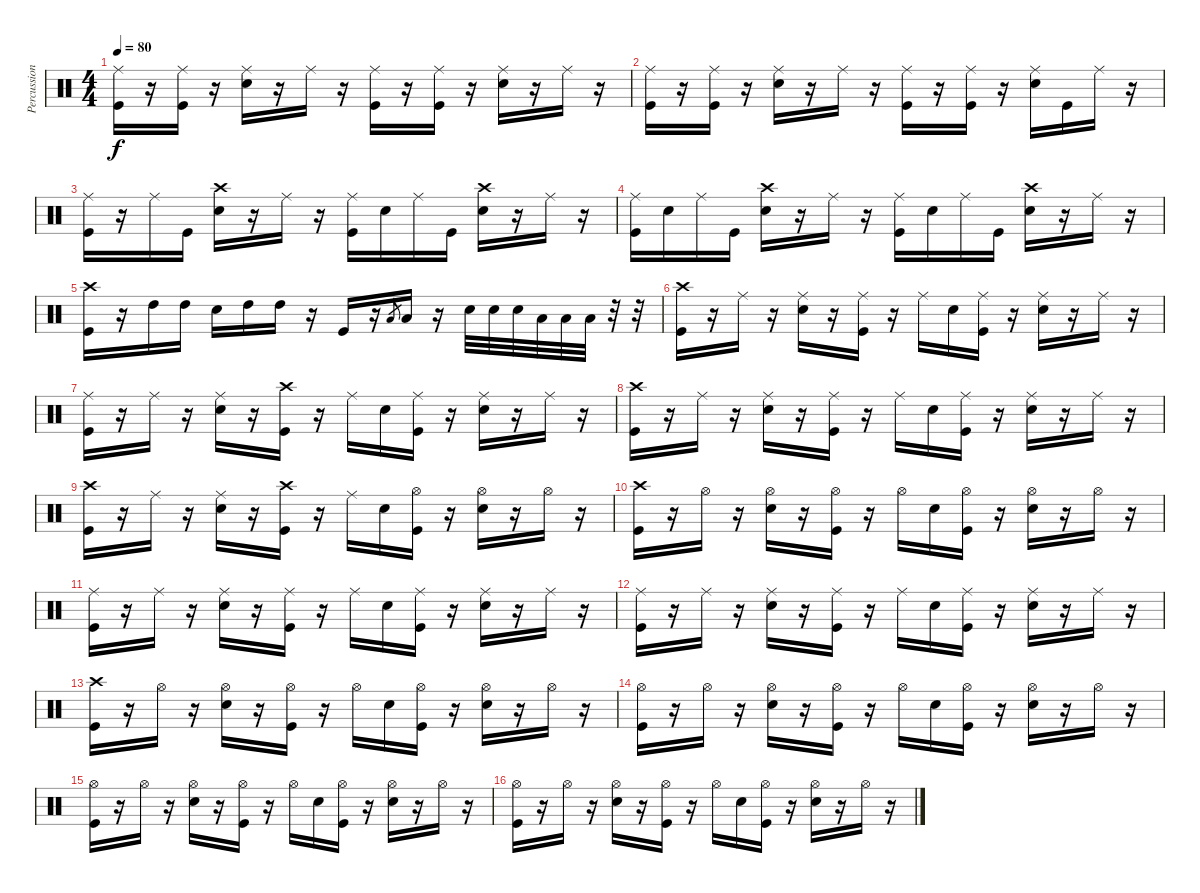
\track ("Percussion" "Percussion") {instrument percussion}
\staff {score}
\articulation defaults
\ts (4 4)
\tempo 80
\clef neutral
\ks c
("Ride (middle)" "Kick (hit)").16{dy f} r.16 ("Ride (middle)" "Kick (hit)").16 r.16 ("Snare (hit) 2" "Ride (middle)").16 r.16 "Ride (middle)".16 r.16 ("Ride (middle)" "Kick (hit)").16 r.16 ("Ride (middle)" "Kick (hit)").16 r.16 ("Snare (hit) 2" "Ride (middle)").16 r.16 "Ride (middle)".16 r.16 |
("Ride (middle)" "Kick (hit)").16 r.16 ("Ride (middle)" "Kick (hit)").16 r.16 ("Snare (hit) 2" "Ride (middle)").16 r.16 "Ride (middle)".16 r.16 ("Ride (middle)" "Kick (hit)").16 r.16 ("Ride (middle)" "Kick (hit)").16 r.16 ("Snare (hit) 2" "Ride (middle)").16 "Kick (hit)".16 "Ride (middle)".16 r.16 |
("Ride (middle)" "Kick (hit)").16 r.16 "Ride (middle)".16 "Kick (hit)".16 ("Snare (hit) 2" "Crash high (hit)").16 r.16 "Ride (middle)".16 r.16 ("Ride (middle)" "Kick (hit)").16 "Snare (hit) 2".16 "Ride (middle)".16 "Kick (hit)".16 ("Snare (hit) 2" "Crash high (hit)").16 r.16 "Ride (middle)".16 r.16 |
("Ride (middle)" "Kick (hit)").16 "Snare (hit) 2".16 "Ride (middle)".16 "Kick (hit)".16 ("Snare (hit) 2" "Crash high (hit)").16 r.16 "Ride (middle)".16 r.16 ("Ride (middle)" "Kick (hit)").16 "Snare (hit) 2".16 "Ride (middle)".16 "Kick (hit)".16 ("Snare (hit) 2" "Crash high (hit)").16 r.16 "Ride (middle)".16 r.16 |
("Crash high (hit)" "Kick (hit)").16 r.16 "High Tom (hit)".16 "High Tom (hit)".16 "Snare (hit) 2".16 "High Tom (hit)".16 "High Tom (hit)".16 r.16 "Kick (hit)".16 r.16 "Low Tom (hit)".8{gr} "Low Tom (hit)".16 r.16 "Snare (hit) 2".32 "Snare (hit) 2".32 "Snare (hit) 2".32 "Low Tom (hit)".32 "Low Tom (hit)".32 "Low Tom (hit)".32 r.32 r.32 |
("Crash high (hit)" "Kick (hit)").16 r.16 "Ride (middle)".16 r.16 ("Snare (hit) 2" "Ride (middle)").16 r.16 ("Ride (middle)" "Kick (hit)").16 r.16 "Ride (middle)".16 "Snare (hit) 2".16 ("Ride (middle)" "Kick (hit)").16 r.16 ("Snare (hit) 2" "Ride (middle)").16 r.16 "Ride (middle)".16 r.16 |
("Ride (middle)" "Kick (hit)").16 r.16 "Ride (middle)".16 r.16 ("Snare (hit) 2" "Ride (middle)").16 r.16 ("Crash high (hit)" "Kick (hit)").16 r.16 "Ride (middle)".16 "Snare (hit) 2".16 ("Ride (middle)" "Kick (hit)").16 r.16 ("Snare (hit) 2" "Ride (middle)").16 r.16 "Ride (middle)".16 r.16 |
("Crash high (hit)" "Kick (hit)").16 r.16 "Ride (middle)".16 r.16 ("Snare (hit) 2" "Ride (middle)").16 r.16 ("Ride (middle)" "Kick (hit)").16 r.16 "Ride (middle)".16 "Snare (hit) 2".16 ("Ride (middle)" "Kick (hit)").16 r.16 ("Snare (hit) 2" "Ride (middle)").16 r.16 "Ride (middle)".16 r.16 |
("Crash high (hit)" "Kick (hit)").16 r.16 "Ride (middle)".16 r.16 ("Snare (hit) 2" "Ride (middle)").16 r.16 ("Crash high (hit)" "Kick (hit)").16 r.16 "Ride (middle)".16 "Snare (hit) 2".16 ("Hi-Hat (open)" "Kick (hit)").16 r.16 ("Snare (hit) 2" "Hi-Hat (open)").16 r.16 "Hi-Hat (open)".16 r.16 |
("Crash high (hit)" "Kick (hit)").16 r.16 "Hi-Hat (open)".16 r.16 ("Snare (hit) 2" "Hi-Hat (open)").16 r.16 ("Hi-Hat (open)" "Kick (hit)").16 r.16 "Hi-Hat (open)".16 "Snare (hit) 2".16 ("Hi-Hat (open)" "Kick (hit)").16 r.16 ("Snare (hit) 2" "Hi-Hat (open)").16 r.16 "Hi-Hat (open)".16 r.16 |
("Ride (middle)" "Kick (hit)").16 r.16 "Ride (middle)".16 r.16 ("Snare (hit) 2" "Ride (middle)").16 r.16 ("Ride (middle)" "Kick (hit)").16 r.16 "Ride (middle)".16 "Snare (hit) 2".16 ("Ride (middle)" "Kick (hit)").16 r.16 ("Snare (hit) 2" "Ride (middle)").16 r.16 "Ride (middle)".16 r.16 |
("Ride (middle)" "Kick (hit)").16 r.16 "Ride (middle)".16 r.16 ("Snare (hit) 2" "Ride (middle)").16 r.16 ("Ride (middle)" "Kick (hit)").16 r.16 "Ride (middle)".16 "Snare (hit) 2".16 ("Ride (middle)" "Kick (hit)").16 r.16 ("Snare (hit) 2" "Ride (middle)").16 r.16 "Ride (middle)".16 r.16 |
("Crash high (hit)" "Kick (hit)").16 r.16 "Hi-Hat (open)".16 r.16 ("Snare (hit) 2" "Hi-Hat (open)").16 r.16 ("Hi-Hat (open)" "Kick (hit)").16 r.16 "Hi-Hat (open)".16 "Snare (hit) 2".16 ("Hi-Hat (open)" "Kick (hit)").16 r.16 ("Snare (hit) 2" "Hi-Hat (open)").16 r.16 "Hi-Hat (open)".16 r.16 |
("Hi-Hat (open)" "Kick (hit)").16 r.16 "Hi-Hat (open)".16 r.16 ("Snare (hit) 2" "Hi-Hat (open)").16 r.16 ("Hi-Hat (open)" "Kick (hit)").16 r.16 "Hi-Hat (open)".16 "Snare (hit) 2".16 ("Hi-Hat (open)" "Kick (hit)").16 r.16 ("Snare (hit) 2" "Hi-Hat (open)").16 r.16 "Hi-Hat (open)".16 r.16 |
("Hi-Hat (open)" "Kick (hit)").16 r.16 "Hi-Hat (open)".16 r.16 ("Snare (hit) 2" "Hi-Hat (open)").16 r.16 ("Hi-Hat (open)" "Kick (hit)").16 r.16 "Hi-Hat (open)".16 "Snare (hit) 2".16 ("Hi-Hat (open)" "Kick (hit)").16 r.16 ("Snare (hit) 2" "Hi-Hat (open)").16 r.16 "Hi-Hat (open)".16 r.16 |
("Hi-Hat (open)" "Kick (hit)").16 r.16 "Hi-Hat (open)".16 r.16 ("Snare (hit) 2" "Hi-Hat (open)").16 r.16 ("Hi-Hat (open)" "Kick (hit)").16 r.16 "Hi-Hat (open)".16 "Snare (hit) 2".16 ("Hi-Hat (open)" "Kick (hit)").16 r.16 ("Snare (hit) 2" "Hi-Hat (open)").16 r.16 "Hi-Hat (open)".16 r.16
